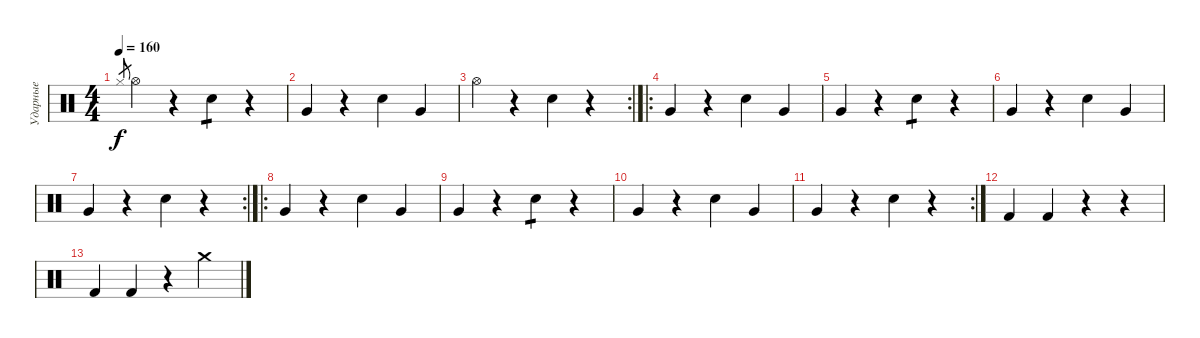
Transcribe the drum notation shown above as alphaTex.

\track ("Ударные" "Ударные") {instrument percussion}
\staff {score}
\articulation defaults
\ts (4 4)
\tempo 160
\clef neutral
\ks c "Hi-Hat (closed)".8{gr dy f} "Hi-Hat (open)".4
r.4 "Hand Clap (hit)".4{tp 1} r.4 |
"Very Low Tom (hit)".4 r.4 "Hand Clap (hit)".4 "Very Low Tom (hit)".4 |
\rc 2 "Hi-Hat (open)".4
r.4 "Hand Clap (hit)".4 r.4 |
\ro "Very Low Tom (hit)".4
r.4 "Hand Clap (hit)".4 "Very Low Tom (hit)".4 |
"Very Low Tom (hit)".4 r.4 "Hand Clap (hit)".4{tp 1} r.4 |
"Very Low Tom (hit)".4 r.4 "Hand Clap (hit)".4 "Very Low Tom (hit)".4 |
\rc 2 "Very Low Tom (hit)".4
r.4 "Hand Clap (hit)".4 r.4 |
\ro "Very Low Tom (hit)".4
r.4 "Hand Clap (hit)".4 "Very Low Tom (hit)".4 |
"Very Low Tom (hit)".4 r.4 "Hand Clap (hit)".4{tp 1} r.4 |
"Very Low Tom (hit)".4 r.4 "Hand Clap (hit)".4 "Very Low Tom (hit)".4 |
\rc 2 "Very Low Tom (hit)".4
r.4 "Hand Clap (hit)".4 r.4 |
"Kick (hit) 2".4 "Kick (hit) 2".4 r.4 r.4 |
"Kick (hit) 2".4 "Kick (hit) 2".4 r.4 "Crash medium (hit)".4
